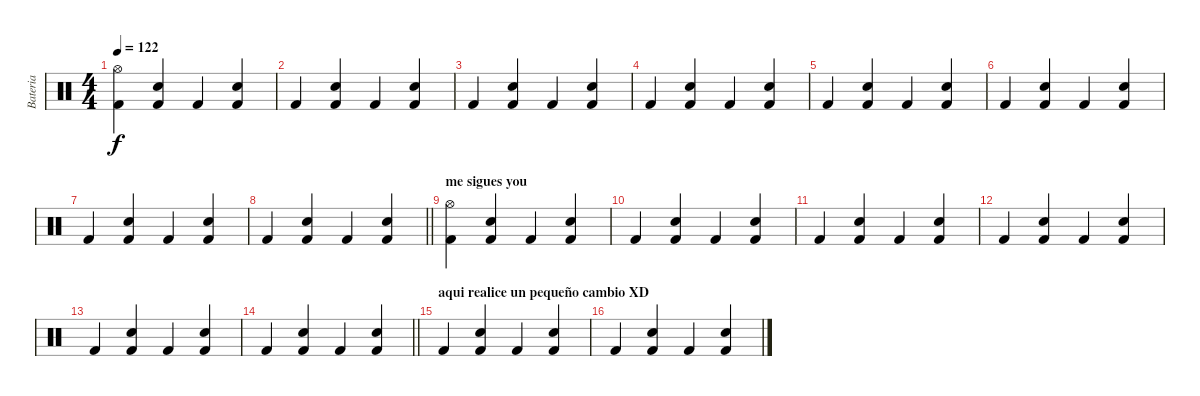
\track ("Bateria" "Bateria") {instrument percussion}
\staff {score}
\articulation defaults
\ts (4 4)
\tempo 122
\clef neutral
\ks c
("Kick (hit) 2" "Hi-Hat (open)").4{dy f} ("Kick (hit) 2" "Snare (hit) 2").4 "Kick (hit) 2".4 ("Kick (hit) 2" "Snare (hit) 2").4 |
"Kick (hit) 2".4 ("Kick (hit) 2" "Snare (hit) 2").4 "Kick (hit) 2".4 ("Kick (hit) 2" "Snare (hit) 2").4 |
"Kick (hit) 2".4 ("Kick (hit) 2" "Snare (hit) 2").4 "Kick (hit) 2".4 ("Kick (hit) 2" "Snare (hit) 2").4 |
"Kick (hit) 2".4 ("Kick (hit) 2" "Snare (hit) 2").4 "Kick (hit) 2".4 ("Kick (hit) 2" "Snare (hit) 2").4 |
"Kick (hit) 2".4 ("Kick (hit) 2" "Snare (hit) 2").4 "Kick (hit) 2".4 ("Kick (hit) 2" "Snare (hit) 2").4 |
"Kick (hit) 2".4 ("Kick (hit) 2" "Snare (hit) 2").4 "Kick (hit) 2".4 ("Kick (hit) 2" "Snare (hit) 2").4 |
"Kick (hit) 2".4 ("Kick (hit) 2" "Snare (hit) 2").4 "Kick (hit) 2".4 ("Kick (hit) 2" "Snare (hit) 2").4 |
\barLineRight lightlight "Kick (hit) 2".4
("Kick (hit) 2" "Snare (hit) 2").4 "Kick (hit) 2".4 ("Kick (hit) 2" "Snare (hit) 2").4 |
\section ("" "me sigues you")
("Kick (hit) 2" "Hi-Hat (open)").4 ("Kick (hit) 2" "Snare (hit) 2").4 "Kick (hit) 2".4 ("Kick (hit) 2" "Snare (hit) 2").4 |
"Kick (hit) 2".4 ("Kick (hit) 2" "Snare (hit) 2").4 "Kick (hit) 2".4 ("Kick (hit) 2" "Snare (hit) 2").4 |
"Kick (hit) 2".4 ("Kick (hit) 2" "Snare (hit) 2").4 "Kick (hit) 2".4 ("Kick (hit) 2" "Snare (hit) 2").4 |
"Kick (hit) 2".4 ("Kick (hit) 2" "Snare (hit) 2").4 "Kick (hit) 2".4 ("Kick (hit) 2" "Snare (hit) 2").4 |
"Kick (hit) 2".4 ("Kick (hit) 2" "Snare (hit) 2").4 "Kick (hit) 2".4 ("Kick (hit) 2" "Snare (hit) 2").4 |
\barLineRight lightlight "Kick (hit) 2".4
("Kick (hit) 2" "Snare (hit) 2").4 "Kick (hit) 2".4 ("Kick (hit) 2" "Snare (hit) 2").4 |
\section ("" "aqui realice un pequeño cambio XD")
"Kick (hit) 2".4 ("Kick (hit) 2" "Snare (hit) 2").4 "Kick (hit) 2".4 ("Kick (hit) 2" "Snare (hit) 2").4 |
"Kick (hit) 2".4 ("Kick (hit) 2" "Snare (hit) 2").4 "Kick (hit) 2".4 ("Kick (hit) 2" "Snare (hit) 2").4
